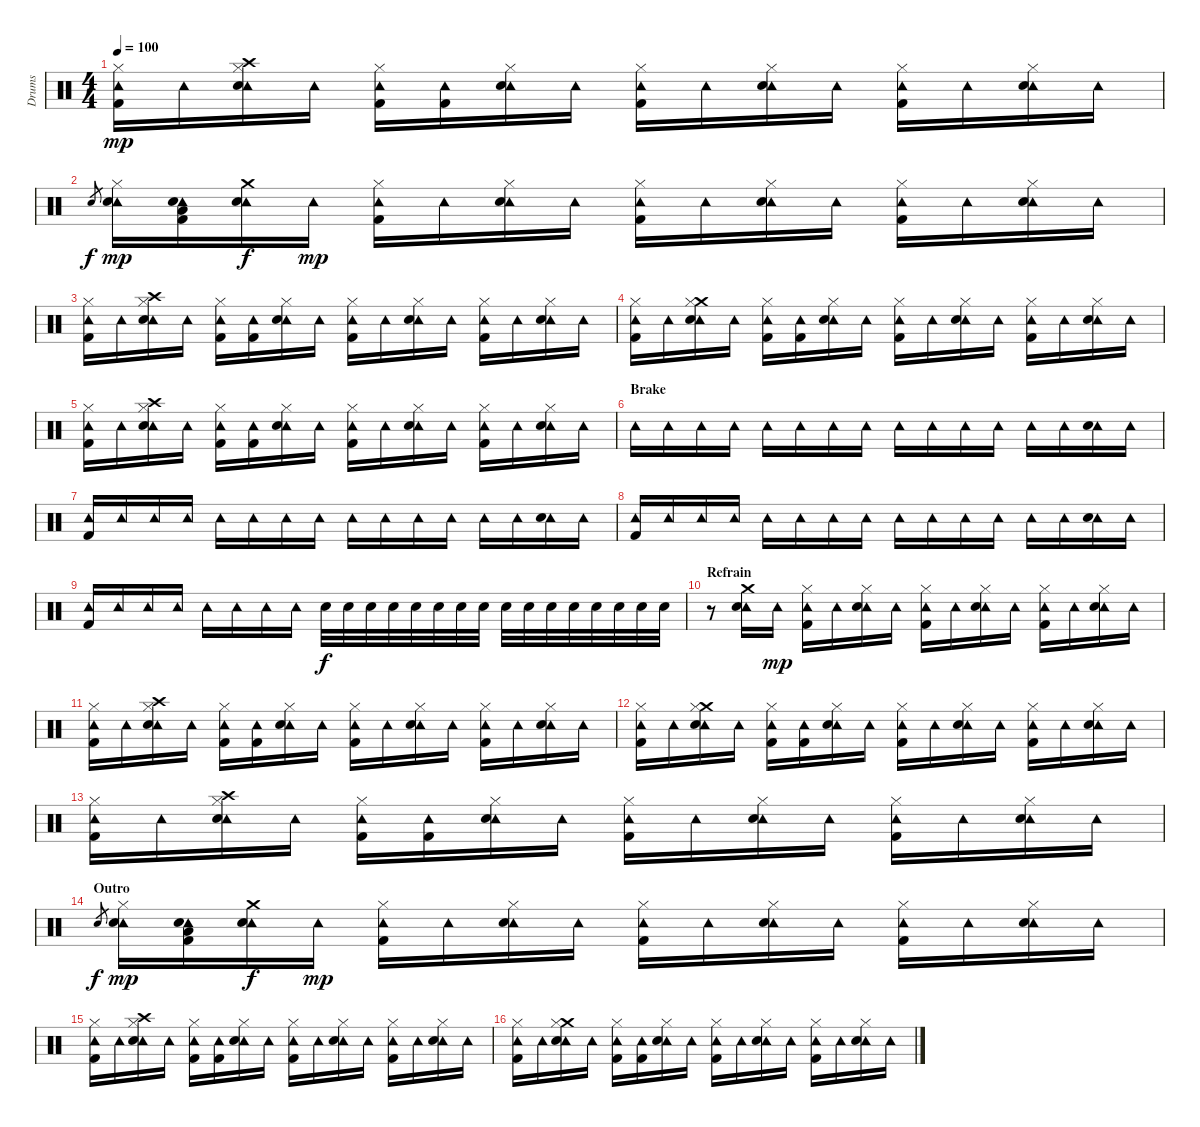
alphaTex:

\track ("Drums" "Drums") {instrument percussion}
\staff {score}
\articulation defaults
\ts (4 4)
\tempo 100
\clef neutral
\ks c
("Hi-Hat (closed)" "Tambourine (hit)" "Kick (hit) 2").16{dy mp} "Tambourine (hit)".16 ("Crash high (hit)" "Hi-Hat (closed)" "Tambourine (hit)" "Electric Snare (hit)").16 "Tambourine (hit)".16 ("Hi-Hat (closed)" "Tambourine (hit)" "Kick (hit) 2").16 ("Tambourine (hit)" "Kick (hit) 2").16 ("Hi-Hat (closed)" "Tambourine (hit)" "Electric Snare (hit)").16 "Tambourine (hit)".16 ("Hi-Hat (closed)" "Tambourine (hit)" "Kick (hit) 2").16 "Tambourine (hit)".16 ("Hi-Hat (closed)" "Tambourine (hit)" "Electric Snare (hit)").16 "Tambourine (hit)".16 ("Hi-Hat (closed)" "Tambourine (hit)" "Kick (hit) 2").16 "Tambourine (hit)".16 ("Hi-Hat (closed)" "Tambourine (hit)" "Electric Snare (hit)").16 "Tambourine (hit)".16 |
"Electric Snare (hit)".8{gr dy f} ("Hi-Hat (closed)" "Tambourine (hit)" "Electric Snare (hit)").16{dy mp} ("Tambourine (hit)" "Electric Snare (hit)" "Low Floor Tom (hit)" "Kick (hit) 2").16 ("Crash medium (hit)" "Tambourine (hit)" "Electric Snare (hit)").16{dy f} "Tambourine (hit)".16{dy mp} ("Hi-Hat (closed)" "Tambourine (hit)" "Kick (hit) 2").16 "Tambourine (hit)".16 ("Hi-Hat (closed)" "Tambourine (hit)" "Electric Snare (hit)").16 "Tambourine (hit)".16 ("Hi-Hat (closed)" "Tambourine (hit)" "Kick (hit) 2").16 "Tambourine (hit)".16 ("Hi-Hat (closed)" "Tambourine (hit)" "Electric Snare (hit)").16 "Tambourine (hit)".16 ("Hi-Hat (closed)" "Tambourine (hit)" "Kick (hit) 2").16 "Tambourine (hit)".16 ("Hi-Hat (closed)" "Tambourine (hit)" "Electric Snare (hit)").16 "Tambourine (hit)".16 |
("Hi-Hat (closed)" "Tambourine (hit)" "Kick (hit) 2").16 "Tambourine (hit)".16 ("Crash high (hit)" "Hi-Hat (closed)" "Tambourine (hit)" "Electric Snare (hit)").16 "Tambourine (hit)".16 ("Hi-Hat (closed)" "Tambourine (hit)" "Kick (hit) 2").16 ("Tambourine (hit)" "Kick (hit) 2").16 ("Hi-Hat (closed)" "Tambourine (hit)" "Electric Snare (hit)").16 "Tambourine (hit)".16 ("Hi-Hat (closed)" "Tambourine (hit)" "Kick (hit) 2").16 "Tambourine (hit)".16 ("Hi-Hat (closed)" "Tambourine (hit)" "Electric Snare (hit)").16 "Tambourine (hit)".16 ("Hi-Hat (closed)" "Tambourine (hit)" "Kick (hit) 2").16 "Tambourine (hit)".16 ("Hi-Hat (closed)" "Tambourine (hit)" "Electric Snare (hit)").16 "Tambourine (hit)".16 |
("Hi-Hat (closed)" "Tambourine (hit)" "Kick (hit) 2").16 "Tambourine (hit)".16 ("Crash medium (hit)" "Hi-Hat (closed)" "Tambourine (hit)" "Electric Snare (hit)").16 "Tambourine (hit)".16 ("Hi-Hat (closed)" "Tambourine (hit)" "Kick (hit) 2").16 ("Tambourine (hit)" "Kick (hit) 2").16 ("Hi-Hat (closed)" "Tambourine (hit)" "Electric Snare (hit)").16 "Tambourine (hit)".16 ("Hi-Hat (closed)" "Tambourine (hit)" "Kick (hit) 2").16 "Tambourine (hit)".16 ("Hi-Hat (closed)" "Tambourine (hit)" "Electric Snare (hit)").16 "Tambourine (hit)".16 ("Hi-Hat (closed)" "Tambourine (hit)" "Kick (hit) 2").16 "Tambourine (hit)".16 ("Hi-Hat (closed)" "Tambourine (hit)" "Electric Snare (hit)").16 "Tambourine (hit)".16 |
("Hi-Hat (closed)" "Tambourine (hit)" "Kick (hit) 2").16 "Tambourine (hit)".16 ("Crash high (hit)" "Hi-Hat (closed)" "Tambourine (hit)" "Electric Snare (hit)").16 "Tambourine (hit)".16 ("Hi-Hat (closed)" "Tambourine (hit)" "Kick (hit) 2").16 ("Tambourine (hit)" "Kick (hit) 2").16 ("Hi-Hat (closed)" "Tambourine (hit)" "Electric Snare (hit)").16 "Tambourine (hit)".16 ("Hi-Hat (closed)" "Tambourine (hit)" "Kick (hit) 2").16 "Tambourine (hit)".16 ("Hi-Hat (closed)" "Tambourine (hit)" "Electric Snare (hit)").16 "Tambourine (hit)".16 ("Hi-Hat (closed)" "Tambourine (hit)" "Kick (hit) 2").16 "Tambourine (hit)".16 ("Hi-Hat (closed)" "Tambourine (hit)" "Electric Snare (hit)").16 "Tambourine (hit)".16 |
\section ("" "Brake")
"Tambourine (hit)".16 "Tambourine (hit)".16 "Tambourine (hit)".16 "Tambourine (hit)".16 "Tambourine (hit)".16 "Tambourine (hit)".16 "Tambourine (hit)".16 "Tambourine (hit)".16 "Tambourine (hit)".16 "Tambourine (hit)".16 "Tambourine (hit)".16 "Tambourine (hit)".16 "Tambourine (hit)".16 "Tambourine (hit)".16 ("Tambourine (hit)" "Electric Snare (hit)").16 "Tambourine (hit)".16 |
("Tambourine (hit)" "Kick (hit) 2").16 "Tambourine (hit)".16 "Tambourine (hit)".16 "Tambourine (hit)".16 "Tambourine (hit)".16 "Tambourine (hit)".16 "Tambourine (hit)".16 "Tambourine (hit)".16 "Tambourine (hit)".16 "Tambourine (hit)".16 "Tambourine (hit)".16 "Tambourine (hit)".16 "Tambourine (hit)".16 "Tambourine (hit)".16 ("Tambourine (hit)" "Electric Snare (hit)").16 "Tambourine (hit)".16 |
("Tambourine (hit)" "Kick (hit) 2").16 "Tambourine (hit)".16 "Tambourine (hit)".16 "Tambourine (hit)".16 "Tambourine (hit)".16 "Tambourine (hit)".16 "Tambourine (hit)".16 "Tambourine (hit)".16 "Tambourine (hit)".16 "Tambourine (hit)".16 "Tambourine (hit)".16 "Tambourine (hit)".16 "Tambourine (hit)".16 "Tambourine (hit)".16 ("Tambourine (hit)" "Electric Snare (hit)").16 "Tambourine (hit)".16 |
("Tambourine (hit)" "Kick (hit) 2").16 "Tambourine (hit)".16 "Tambourine (hit)".16 "Tambourine (hit)".16 "Tambourine (hit)".16 "Tambourine (hit)".16 "Tambourine (hit)".16 "Tambourine (hit)".16 "Electric Snare (hit)".32{dy f} "Electric Snare (hit)".32 "Electric Snare (hit)".32 "Electric Snare (hit)".32 "Electric Snare (hit)".32 "Electric Snare (hit)".32 "Electric Snare (hit)".32 "Electric Snare (hit)".32 "Electric Snare (hit)".32 "Electric Snare (hit)".32 "Electric Snare (hit)".32 "Electric Snare (hit)".32 "Electric Snare (hit)".32 "Electric Snare (hit)".32 "Electric Snare (hit)".32 "Electric Snare (hit)".32 |
\section ("" "Refrain")
r.8 ("Crash medium (hit)" "Tambourine (hit)" "Electric Snare (hit)").16 "Tambourine (hit)".16{dy mp} ("Hi-Hat (closed)" "Tambourine (hit)" "Kick (hit) 2").16 "Tambourine (hit)".16 ("Hi-Hat (closed)" "Tambourine (hit)" "Electric Snare (hit)").16 "Tambourine (hit)".16 ("Hi-Hat (closed)" "Tambourine (hit)" "Kick (hit) 2").16 "Tambourine (hit)".16 ("Hi-Hat (closed)" "Tambourine (hit)" "Electric Snare (hit)").16 "Tambourine (hit)".16 ("Hi-Hat (closed)" "Tambourine (hit)" "Kick (hit) 2").16 "Tambourine (hit)".16 ("Hi-Hat (closed)" "Tambourine (hit)" "Electric Snare (hit)").16 "Tambourine (hit)".16 |
("Hi-Hat (closed)" "Tambourine (hit)" "Kick (hit) 2").16 "Tambourine (hit)".16 ("Crash high (hit)" "Hi-Hat (closed)" "Tambourine (hit)" "Electric Snare (hit)").16 "Tambourine (hit)".16 ("Hi-Hat (closed)" "Tambourine (hit)" "Kick (hit) 2").16 ("Tambourine (hit)" "Kick (hit) 2").16 ("Hi-Hat (closed)" "Tambourine (hit)" "Electric Snare (hit)").16 "Tambourine (hit)".16 ("Hi-Hat (closed)" "Tambourine (hit)" "Kick (hit) 2").16 "Tambourine (hit)".16 ("Hi-Hat (closed)" "Tambourine (hit)" "Electric Snare (hit)").16 "Tambourine (hit)".16 ("Hi-Hat (closed)" "Tambourine (hit)" "Kick (hit) 2").16 "Tambourine (hit)".16 ("Hi-Hat (closed)" "Tambourine (hit)" "Electric Snare (hit)").16 "Tambourine (hit)".16 |
("Hi-Hat (closed)" "Tambourine (hit)" "Kick (hit) 2").16 "Tambourine (hit)".16 ("Crash medium (hit)" "Hi-Hat (closed)" "Tambourine (hit)" "Electric Snare (hit)").16 "Tambourine (hit)".16 ("Hi-Hat (closed)" "Tambourine (hit)" "Kick (hit) 2").16 ("Tambourine (hit)" "Kick (hit) 2").16 ("Hi-Hat (closed)" "Tambourine (hit)" "Electric Snare (hit)").16 "Tambourine (hit)".16 ("Hi-Hat (closed)" "Tambourine (hit)" "Kick (hit) 2").16 "Tambourine (hit)".16 ("Hi-Hat (closed)" "Tambourine (hit)" "Electric Snare (hit)").16 "Tambourine (hit)".16 ("Hi-Hat (closed)" "Tambourine (hit)" "Kick (hit) 2").16 "Tambourine (hit)".16 ("Hi-Hat (closed)" "Tambourine (hit)" "Electric Snare (hit)").16 "Tambourine (hit)".16 |
("Hi-Hat (closed)" "Tambourine (hit)" "Kick (hit) 2").16 "Tambourine (hit)".16 ("Crash high (hit)" "Hi-Hat (closed)" "Tambourine (hit)" "Electric Snare (hit)").16 "Tambourine (hit)".16 ("Hi-Hat (closed)" "Tambourine (hit)" "Kick (hit) 2").16 ("Tambourine (hit)" "Kick (hit) 2").16 ("Hi-Hat (closed)" "Tambourine (hit)" "Electric Snare (hit)").16 "Tambourine (hit)".16 ("Hi-Hat (closed)" "Tambourine (hit)" "Kick (hit) 2").16 "Tambourine (hit)".16 ("Hi-Hat (closed)" "Tambourine (hit)" "Electric Snare (hit)").16 "Tambourine (hit)".16 ("Hi-Hat (closed)" "Tambourine (hit)" "Kick (hit) 2").16 "Tambourine (hit)".16 ("Hi-Hat (closed)" "Tambourine (hit)" "Electric Snare (hit)").16 "Tambourine (hit)".16 |
\section ("" "Outro")
"Electric Snare (hit)".8{gr dy f} ("Hi-Hat (closed)" "Tambourine (hit)" "Electric Snare (hit)").16{dy mp} ("Tambourine (hit)" "Electric Snare (hit)" "Low Floor Tom (hit)" "Kick (hit) 2").16 ("Crash medium (hit)" "Tambourine (hit)" "Electric Snare (hit)").16{dy f} "Tambourine (hit)".16{dy mp} ("Hi-Hat (closed)" "Tambourine (hit)" "Kick (hit) 2").16 "Tambourine (hit)".16 ("Hi-Hat (closed)" "Tambourine (hit)" "Electric Snare (hit)").16 "Tambourine (hit)".16 ("Hi-Hat (closed)" "Tambourine (hit)" "Kick (hit) 2").16 "Tambourine (hit)".16 ("Hi-Hat (closed)" "Tambourine (hit)" "Electric Snare (hit)").16 "Tambourine (hit)".16 ("Hi-Hat (closed)" "Tambourine (hit)" "Kick (hit) 2").16 "Tambourine (hit)".16 ("Hi-Hat (closed)" "Tambourine (hit)" "Electric Snare (hit)").16 "Tambourine (hit)".16 |
("Hi-Hat (closed)" "Tambourine (hit)" "Kick (hit) 2").16 "Tambourine (hit)".16 ("Crash high (hit)" "Hi-Hat (closed)" "Tambourine (hit)" "Electric Snare (hit)").16 "Tambourine (hit)".16 ("Hi-Hat (closed)" "Tambourine (hit)" "Kick (hit) 2").16 ("Tambourine (hit)" "Kick (hit) 2").16 ("Hi-Hat (closed)" "Tambourine (hit)" "Electric Snare (hit)").16 "Tambourine (hit)".16 ("Hi-Hat (closed)" "Tambourine (hit)" "Kick (hit) 2").16 "Tambourine (hit)".16 ("Hi-Hat (closed)" "Tambourine (hit)" "Electric Snare (hit)").16 "Tambourine (hit)".16 ("Hi-Hat (closed)" "Tambourine (hit)" "Kick (hit) 2").16 "Tambourine (hit)".16 ("Hi-Hat (closed)" "Tambourine (hit)" "Electric Snare (hit)").16 "Tambourine (hit)".16 |
("Hi-Hat (closed)" "Tambourine (hit)" "Kick (hit) 2").16 "Tambourine (hit)".16 ("Crash medium (hit)" "Hi-Hat (closed)" "Tambourine (hit)" "Electric Snare (hit)").16 "Tambourine (hit)".16 ("Hi-Hat (closed)" "Tambourine (hit)" "Kick (hit) 2").16 ("Tambourine (hit)" "Kick (hit) 2").16 ("Hi-Hat (closed)" "Tambourine (hit)" "Electric Snare (hit)").16 "Tambourine (hit)".16 ("Hi-Hat (closed)" "Tambourine (hit)" "Kick (hit) 2").16 "Tambourine (hit)".16 ("Hi-Hat (closed)" "Tambourine (hit)" "Electric Snare (hit)").16 "Tambourine (hit)".16 ("Hi-Hat (closed)" "Tambourine (hit)" "Kick (hit) 2").16 "Tambourine (hit)".16 ("Hi-Hat (closed)" "Tambourine (hit)" "Electric Snare (hit)").16 "Tambourine (hit)".16
